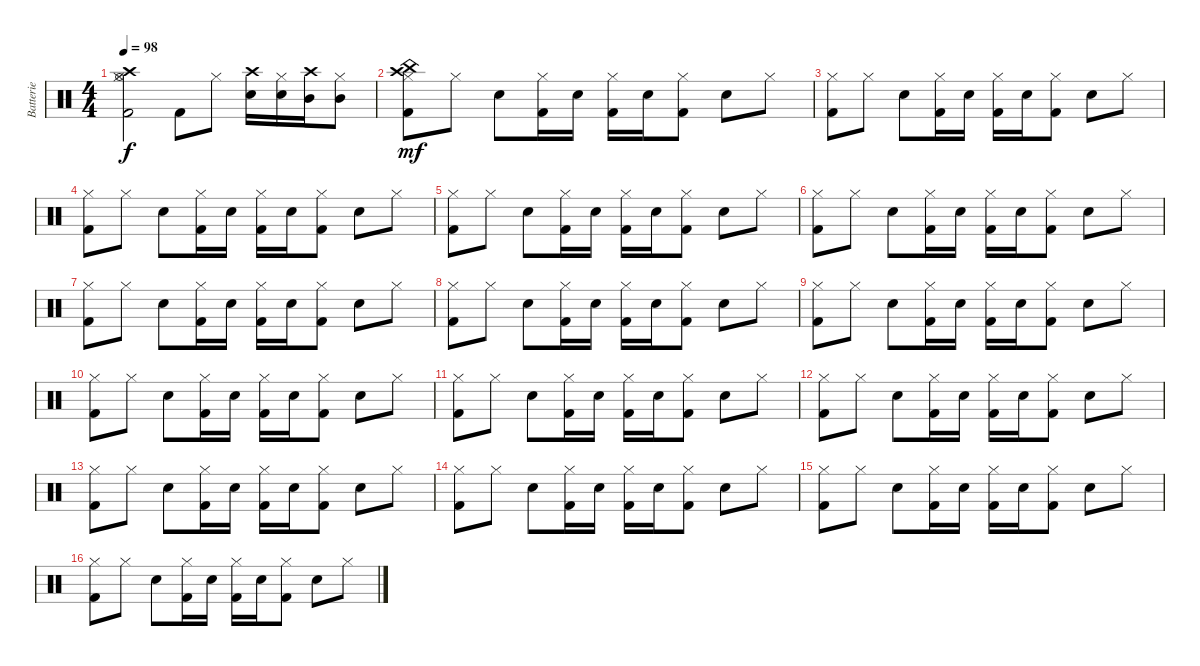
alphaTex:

\track ("Batterie" "Batterie") {instrument percussion}
\staff {score}
\articulation defaults
\ts (4 4)
\tempo 98
\clef neutral
\ks c
("Kick (hit) 2" "Hi-Hat (closed)" "Hi-Hat (open)" "Crash high (hit)").2{dy f} "Kick (hit) 2".8 "Hi-Hat (closed)".8 ("Electric Snare (hit)" "Crash high (hit)").16 ("Electric Snare (hit)" "Hi-Hat (closed)").16 ("Mid Tom (hit)" "Crash high (hit)").16 ("Mid Tom (hit)" "Hi-Hat (closed)").8 |
("Kick (hit) 2" "China (hit)" "Crash high (hit)" "Hi-Hat (closed)").8{dy mf} "Hi-Hat (closed)".8 "Electric Snare (hit)".8 ("Kick (hit) 2" "Hi-Hat (closed)").16 "Snare (hit) 2".16 ("Kick (hit) 2" "Hi-Hat (closed)").16 "Snare (hit) 2".16 ("Kick (hit) 2" "Hi-Hat (closed)").8 "Electric Snare (hit)".8 "Hi-Hat (closed)".8 |
("Kick (hit) 2" "Hi-Hat (closed)").8 "Hi-Hat (closed)".8 "Electric Snare (hit)".8 ("Kick (hit) 2" "Hi-Hat (closed)").16 "Snare (hit) 2".16 ("Kick (hit) 2" "Hi-Hat (closed)").16 "Snare (hit) 2".16 ("Kick (hit) 2" "Hi-Hat (closed)").8 "Electric Snare (hit)".8 "Hi-Hat (closed)".8 |
("Kick (hit) 2" "Hi-Hat (closed)").8 "Hi-Hat (closed)".8 "Electric Snare (hit)".8 ("Kick (hit) 2" "Hi-Hat (closed)").16 "Snare (hit) 2".16 ("Kick (hit) 2" "Hi-Hat (closed)").16 "Snare (hit) 2".16 ("Kick (hit) 2" "Hi-Hat (closed)").8 "Electric Snare (hit)".8 "Hi-Hat (closed)".8 |
("Kick (hit) 2" "Hi-Hat (closed)").8 "Hi-Hat (closed)".8 "Electric Snare (hit)".8 ("Kick (hit) 2" "Hi-Hat (closed)").16 "Snare (hit) 2".16 ("Kick (hit) 2" "Hi-Hat (closed)").16 "Snare (hit) 2".16 ("Kick (hit) 2" "Hi-Hat (closed)").8 "Electric Snare (hit)".8 "Hi-Hat (closed)".8 |
("Kick (hit) 2" "Hi-Hat (closed)").8 "Hi-Hat (closed)".8 "Electric Snare (hit)".8 ("Kick (hit) 2" "Hi-Hat (closed)").16 "Snare (hit) 2".16 ("Kick (hit) 2" "Hi-Hat (closed)").16 "Snare (hit) 2".16 ("Kick (hit) 2" "Hi-Hat (closed)").8 "Electric Snare (hit)".8 "Hi-Hat (closed)".8 |
("Kick (hit) 2" "Hi-Hat (closed)").8 "Hi-Hat (closed)".8 "Electric Snare (hit)".8 ("Kick (hit) 2" "Hi-Hat (closed)").16 "Snare (hit) 2".16 ("Kick (hit) 2" "Hi-Hat (closed)").16 "Snare (hit) 2".16 ("Kick (hit) 2" "Hi-Hat (closed)").8 "Electric Snare (hit)".8 "Hi-Hat (closed)".8 |
("Kick (hit) 2" "Hi-Hat (closed)").8 "Hi-Hat (closed)".8 "Electric Snare (hit)".8 ("Kick (hit) 2" "Hi-Hat (closed)").16 "Snare (hit) 2".16 ("Kick (hit) 2" "Hi-Hat (closed)").16 "Snare (hit) 2".16 ("Kick (hit) 2" "Hi-Hat (closed)").8 "Electric Snare (hit)".8 "Hi-Hat (closed)".8 |
("Kick (hit) 2" "Hi-Hat (closed)").8 "Hi-Hat (closed)".8 "Electric Snare (hit)".8 ("Kick (hit) 2" "Hi-Hat (closed)").16 "Snare (hit) 2".16 ("Kick (hit) 2" "Hi-Hat (closed)").16 "Snare (hit) 2".16 ("Kick (hit) 2" "Hi-Hat (closed)").8 "Electric Snare (hit)".8 "Hi-Hat (closed)".8 |
("Kick (hit) 2" "Hi-Hat (closed)").8 "Hi-Hat (closed)".8 "Electric Snare (hit)".8 ("Kick (hit) 2" "Hi-Hat (closed)").16 "Snare (hit) 2".16 ("Kick (hit) 2" "Hi-Hat (closed)").16 "Snare (hit) 2".16 ("Kick (hit) 2" "Hi-Hat (closed)").8 "Electric Snare (hit)".8 "Hi-Hat (closed)".8 |
("Kick (hit) 2" "Hi-Hat (closed)").8 "Hi-Hat (closed)".8 "Electric Snare (hit)".8 ("Kick (hit) 2" "Hi-Hat (closed)").16 "Snare (hit) 2".16 ("Kick (hit) 2" "Hi-Hat (closed)").16 "Snare (hit) 2".16 ("Kick (hit) 2" "Hi-Hat (closed)").8 "Electric Snare (hit)".8 "Hi-Hat (closed)".8 |
("Kick (hit) 2" "Hi-Hat (closed)").8 "Hi-Hat (closed)".8 "Electric Snare (hit)".8 ("Kick (hit) 2" "Hi-Hat (closed)").16 "Snare (hit) 2".16 ("Kick (hit) 2" "Hi-Hat (closed)").16 "Snare (hit) 2".16 ("Kick (hit) 2" "Hi-Hat (closed)").8 "Electric Snare (hit)".8 "Hi-Hat (closed)".8 |
("Kick (hit) 2" "Hi-Hat (closed)").8 "Hi-Hat (closed)".8 "Electric Snare (hit)".8 ("Kick (hit) 2" "Hi-Hat (closed)").16 "Snare (hit) 2".16 ("Kick (hit) 2" "Hi-Hat (closed)").16 "Snare (hit) 2".16 ("Kick (hit) 2" "Hi-Hat (closed)").8 "Electric Snare (hit)".8 "Hi-Hat (closed)".8 |
("Kick (hit) 2" "Hi-Hat (closed)").8 "Hi-Hat (closed)".8 "Electric Snare (hit)".8 ("Kick (hit) 2" "Hi-Hat (closed)").16 "Snare (hit) 2".16 ("Kick (hit) 2" "Hi-Hat (closed)").16 "Snare (hit) 2".16 ("Kick (hit) 2" "Hi-Hat (closed)").8 "Electric Snare (hit)".8 "Hi-Hat (closed)".8 |
("Kick (hit) 2" "Hi-Hat (closed)").8 "Hi-Hat (closed)".8 "Electric Snare (hit)".8 ("Kick (hit) 2" "Hi-Hat (closed)").16 "Snare (hit) 2".16 ("Kick (hit) 2" "Hi-Hat (closed)").16 "Snare (hit) 2".16 ("Kick (hit) 2" "Hi-Hat (closed)").8 "Electric Snare (hit)".8 "Hi-Hat (closed)".8 |
("Kick (hit) 2" "Hi-Hat (closed)").8 "Hi-Hat (closed)".8 "Electric Snare (hit)".8 ("Kick (hit) 2" "Hi-Hat (closed)").16 "Snare (hit) 2".16 ("Kick (hit) 2" "Hi-Hat (closed)").16 "Snare (hit) 2".16 ("Kick (hit) 2" "Hi-Hat (closed)").8 "Electric Snare (hit)".8 "Hi-Hat (closed)".8
